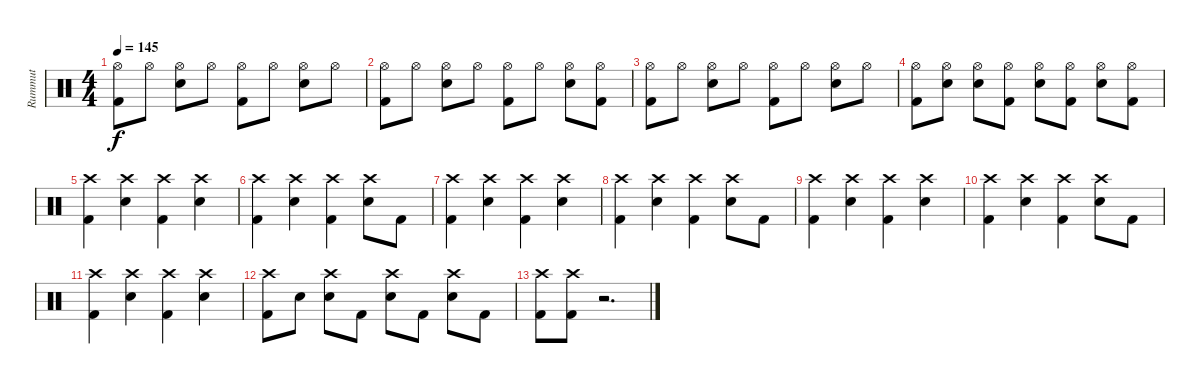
\track ("Rummut" "Rummut") {instrument percussion}
\staff {score}
\articulation defaults
\ts (4 4)
\tempo 145
\clef neutral
\ks c
("Hi-Hat (open)" "Kick (hit) 2").8{dy f} "Hi-Hat (open)".8 ("Hi-Hat (open)" "Snare (hit) 2").8 "Hi-Hat (open)".8 ("Hi-Hat (open)" "Kick (hit) 2").8 "Hi-Hat (open)".8 ("Hi-Hat (open)" "Snare (hit) 2").8 "Hi-Hat (open)".8 |
("Hi-Hat (open)" "Kick (hit) 2").8 "Hi-Hat (open)".8 ("Hi-Hat (open)" "Snare (hit) 2").8 "Hi-Hat (open)".8 ("Hi-Hat (open)" "Kick (hit) 2").8 "Hi-Hat (open)".8 ("Hi-Hat (open)" "Snare (hit) 2").8 ("Hi-Hat (open)" "Kick (hit) 2").8 |
("Hi-Hat (open)" "Kick (hit) 2").8 "Hi-Hat (open)".8 ("Hi-Hat (open)" "Snare (hit) 2").8 "Hi-Hat (open)".8 ("Hi-Hat (open)" "Kick (hit) 2").8 "Hi-Hat (open)".8 ("Hi-Hat (open)" "Snare (hit) 2").8 "Hi-Hat (open)".8 |
("Hi-Hat (open)" "Kick (hit) 2").8 ("Hi-Hat (open)" "Snare (hit) 2").8 ("Hi-Hat (open)" "Snare (hit) 2").8 ("Hi-Hat (open)" "Kick (hit) 2").8 ("Hi-Hat (open)" "Snare (hit) 2").8 ("Hi-Hat (open)" "Kick (hit) 2").8 ("Hi-Hat (open)" "Snare (hit) 2").8 ("Hi-Hat (open)" "Kick (hit) 2").8 |
("Crash high (hit)" "Kick (hit) 2").4 ("Crash high (hit)" "Snare (hit) 2").4 ("Crash high (hit)" "Kick (hit) 2").4 ("Crash high (hit)" "Snare (hit) 2").4 |
("Crash high (hit)" "Kick (hit) 2").4 ("Crash high (hit)" "Snare (hit) 2").4 ("Crash high (hit)" "Kick (hit) 2").4 ("Crash high (hit)" "Snare (hit) 2").8 "Kick (hit) 2".8 |
("Crash high (hit)" "Kick (hit) 2").4 ("Crash high (hit)" "Snare (hit) 2").4 ("Crash high (hit)" "Kick (hit) 2").4 ("Crash high (hit)" "Snare (hit) 2").4 |
("Crash high (hit)" "Kick (hit) 2").4 ("Crash high (hit)" "Snare (hit) 2").4 ("Crash high (hit)" "Kick (hit) 2").4 ("Crash high (hit)" "Snare (hit) 2").8 "Kick (hit) 2".8 |
("Crash high (hit)" "Kick (hit) 2").4 ("Crash high (hit)" "Snare (hit) 2").4 ("Crash high (hit)" "Kick (hit) 2").4 ("Crash high (hit)" "Snare (hit) 2").4 |
("Crash high (hit)" "Kick (hit) 2").4 ("Crash high (hit)" "Snare (hit) 2").4 ("Crash high (hit)" "Kick (hit) 2").4 ("Crash high (hit)" "Snare (hit) 2").8 "Kick (hit) 2".8 |
("Crash high (hit)" "Kick (hit) 2").4 ("Crash high (hit)" "Snare (hit) 2").4 ("Crash high (hit)" "Kick (hit) 2").4 ("Crash high (hit)" "Snare (hit) 2").4 |
("Crash high (hit)" "Kick (hit) 2").8 "Snare (hit) 2".8 ("Crash high (hit)" "Snare (hit) 2").8 "Kick (hit) 2".8 ("Crash high (hit)" "Snare (hit) 2").8 "Kick (hit) 2".8 ("Crash high (hit)" "Snare (hit) 2").8 "Kick (hit) 2".8 |
("Crash high (hit)" "Kick (hit) 2").8 ("Crash high (hit)" "Kick (hit) 2").8 r.2{d}
